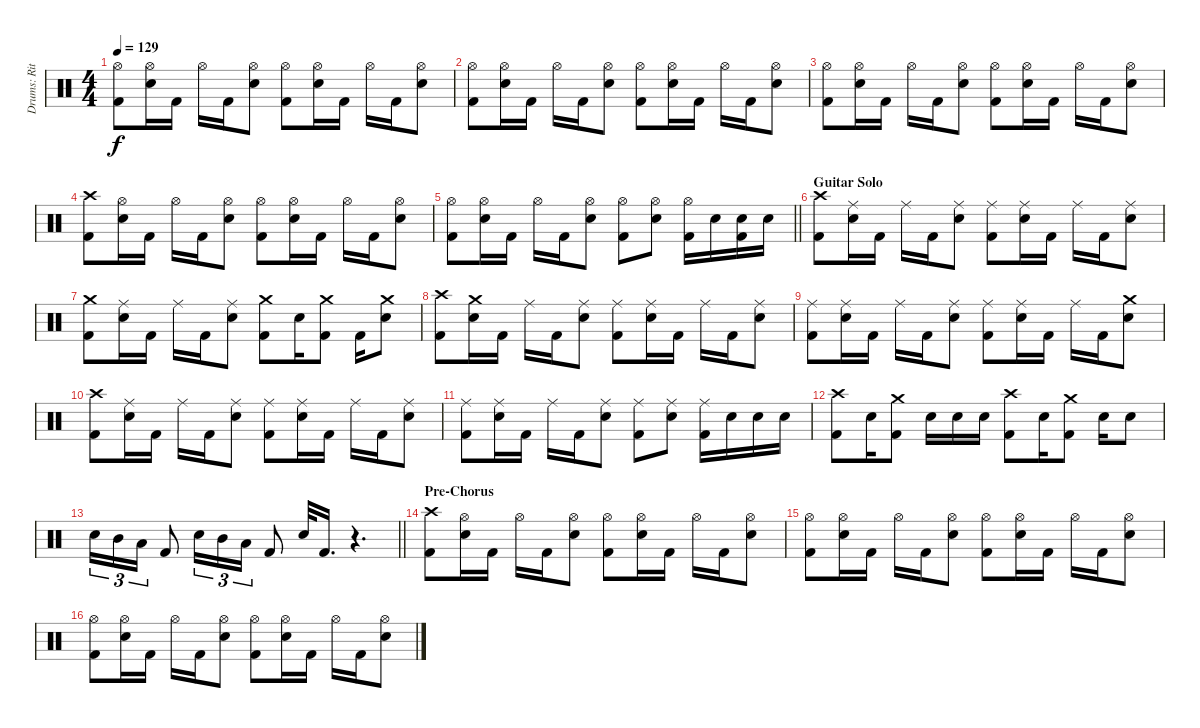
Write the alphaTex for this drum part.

\track ("Drums: Ritsu Tainaka" "Drums: Rit") {instrument percussion}
\staff {score}
\articulation defaults
\ts (4 4)
\tempo 129
\clef neutral
\ks c
("Hi-Hat (open)" "Kick (hit) 2").8{dy f} ("Hi-Hat (open)" "Electric Snare (hit)").16 "Kick (hit) 2".16 "Hi-Hat (open)".16 "Kick (hit) 2".16 ("Hi-Hat (open)" "Electric Snare (hit)").8 ("Hi-Hat (open)" "Kick (hit) 2").8 ("Hi-Hat (open)" "Electric Snare (hit)").16 "Kick (hit) 2".16 "Hi-Hat (open)".16 "Kick (hit) 2".16 ("Hi-Hat (open)" "Electric Snare (hit)").8 |
("Hi-Hat (open)" "Kick (hit) 2").8 ("Hi-Hat (open)" "Electric Snare (hit)").16 "Kick (hit) 2".16 "Hi-Hat (open)".16 "Kick (hit) 2".16 ("Hi-Hat (open)" "Electric Snare (hit)").8 ("Hi-Hat (open)" "Kick (hit) 2").8 ("Hi-Hat (open)" "Electric Snare (hit)").16 "Kick (hit) 2".16 "Hi-Hat (open)".16 "Kick (hit) 2".16 ("Hi-Hat (open)" "Electric Snare (hit)").8 |
("Hi-Hat (open)" "Kick (hit) 2").8 ("Hi-Hat (open)" "Electric Snare (hit)").16 "Kick (hit) 2".16 "Hi-Hat (open)".16 "Kick (hit) 2".16 ("Hi-Hat (open)" "Electric Snare (hit)").8 ("Hi-Hat (open)" "Kick (hit) 2").8 ("Hi-Hat (open)" "Electric Snare (hit)").16 "Kick (hit) 2".16 "Hi-Hat (open)".16 "Kick (hit) 2".16 ("Hi-Hat (open)" "Electric Snare (hit)").8 |
("Crash high (hit)" "Kick (hit) 2").8 ("Hi-Hat (open)" "Electric Snare (hit)").16 "Kick (hit) 2".16 "Hi-Hat (open)".16 "Kick (hit) 2".16 ("Hi-Hat (open)" "Electric Snare (hit)").8 ("Hi-Hat (open)" "Kick (hit) 2").8 ("Hi-Hat (open)" "Electric Snare (hit)").16 "Kick (hit) 2".16 "Hi-Hat (open)".16 "Kick (hit) 2".16 ("Hi-Hat (open)" "Electric Snare (hit)").8 |
\barLineRight lightlight
("Hi-Hat (open)" "Kick (hit) 2").8 ("Hi-Hat (open)" "Electric Snare (hit)").16 "Kick (hit) 2".16 "Hi-Hat (open)".16 "Kick (hit) 2".16 ("Hi-Hat (open)" "Electric Snare (hit)").8 ("Hi-Hat (open)" "Kick (hit) 2").8 ("Hi-Hat (open)" "Electric Snare (hit)").8 ("Hi-Hat (open)" "Kick (hit) 2").16 "Electric Snare (hit)".16 ("Electric Snare (hit)" "Kick (hit) 2").16 "Electric Snare (hit)".16 |
\section ("" "Guitar Solo")
("Crash high (hit)" "Kick (hit) 2").8 ("Ride (middle)" "Electric Snare (hit)").16 "Kick (hit) 2".16 "Ride (middle)".16 "Kick (hit) 2".16 ("Ride (middle)" "Electric Snare (hit)").8 ("Ride (middle)" "Kick (hit) 2").8 ("Ride (middle)" "Electric Snare (hit)").16 "Kick (hit) 2".16 "Ride (middle)".16 "Kick (hit) 2".16 ("Ride (middle)" "Electric Snare (hit)").8 |
("Crash medium (hit)" "Kick (hit) 2").8 ("Ride (middle)" "Electric Snare (hit)").16 "Kick (hit) 2".16 "Ride (middle)".16 "Kick (hit) 2".16 ("Ride (middle)" "Electric Snare (hit)").8 ("Crash medium (hit)" "Kick (hit) 2").8 "Electric Snare (hit)".16 ("Crash medium (hit)" "Kick (hit) 2").8 "Kick (hit) 2".16 ("Crash medium (hit)" "Electric Snare (hit)").8 |
("Crash high (hit)" "Kick (hit) 2").8 ("Crash medium (hit)" "Electric Snare (hit)").16 "Kick (hit) 2".16 "Ride (middle)".16 "Kick (hit) 2".16 ("Ride (middle)" "Electric Snare (hit)").8 ("Ride (middle)" "Kick (hit) 2").8 ("Ride (middle)" "Electric Snare (hit)").16 "Kick (hit) 2".16 "Ride (middle)".16 "Kick (hit) 2".16 ("Ride (middle)" "Electric Snare (hit)").8 |
("Ride (middle)" "Kick (hit) 2").8 ("Ride (middle)" "Electric Snare (hit)").16 "Kick (hit) 2".16 "Ride (middle)".16 "Kick (hit) 2".16 ("Ride (middle)" "Electric Snare (hit)").8 ("Ride (middle)" "Kick (hit) 2").8 ("Ride (middle)" "Electric Snare (hit)").16 "Kick (hit) 2".16 "Ride (middle)".16 "Kick (hit) 2".16 ("Crash medium (hit)" "Electric Snare (hit)").8 |
("Crash high (hit)" "Kick (hit) 2").8 ("Ride (middle)" "Electric Snare (hit)").16 "Kick (hit) 2".16 "Ride (middle)".16 "Kick (hit) 2".16 ("Ride (middle)" "Electric Snare (hit)").8 ("Ride (middle)" "Kick (hit) 2").8 ("Ride (middle)" "Electric Snare (hit)").16 "Kick (hit) 2".16 "Ride (middle)".16 "Kick (hit) 2".16 ("Ride (middle)" "Electric Snare (hit)").8 |
("Ride (middle)" "Kick (hit) 2").8 ("Ride (middle)" "Electric Snare (hit)").16 "Kick (hit) 2".16 "Ride (middle)".16 "Kick (hit) 2".16 ("Ride (middle)" "Electric Snare (hit)").8 ("Ride (middle)" "Kick (hit) 2").8 ("Ride (middle)" "Electric Snare (hit)").8 ("Ride (middle)" "Kick (hit) 2").16 "Electric Snare (hit)".16 "Electric Snare (hit)".16 "Electric Snare (hit)".16 |
("Crash high (hit)" "Kick (hit) 2").8 "Electric Snare (hit)".16 ("Crash medium (hit)" "Kick (hit) 2").8 "Electric Snare (hit)".16 "Electric Snare (hit)".16 "Electric Snare (hit)".16 ("Crash high (hit)" "Kick (hit) 2").8 "Electric Snare (hit)".16 ("Crash medium (hit)" "Kick (hit) 2").8 "Electric Snare (hit)".16 "Electric Snare (hit)".8 |
\barLineRight lightlight "Electric Snare (hit)".16{tu (3 2)} "Mid Tom (hit)".16{tu (3 2)} "Low Floor Tom (hit)".16{tu (3 2)} "Kick (hit) 2".8 "Electric Snare (hit)".16{tu (3 2)} "Mid Tom (hit)".16{tu (3 2)} "Low Floor Tom (hit)".16{tu (3 2)} "Kick (hit) 2".8 "Electric Snare (hit)".32 "Kick (hit) 2".16{d}
r.4{d} |
\section ("" "Pre-Chorus")
("Crash high (hit)" "Kick (hit) 2").8 ("Hi-Hat (open)" "Electric Snare (hit)").16 "Kick (hit) 2".16 "Hi-Hat (open)".16 "Kick (hit) 2".16 ("Hi-Hat (open)" "Electric Snare (hit)").8 ("Hi-Hat (open)" "Kick (hit) 2").8 ("Hi-Hat (open)" "Electric Snare (hit)").16 "Kick (hit) 2".16 "Hi-Hat (open)".16 "Kick (hit) 2".16 ("Hi-Hat (open)" "Electric Snare (hit)").8 |
("Hi-Hat (open)" "Kick (hit) 2").8 ("Hi-Hat (open)" "Electric Snare (hit)").16 "Kick (hit) 2".16 "Hi-Hat (open)".16 "Kick (hit) 2".16 ("Hi-Hat (open)" "Electric Snare (hit)").8 ("Hi-Hat (open)" "Kick (hit) 2").8 ("Hi-Hat (open)" "Electric Snare (hit)").16 "Kick (hit) 2".16 "Hi-Hat (open)".16 "Kick (hit) 2".16 ("Hi-Hat (open)" "Electric Snare (hit)").8 |
("Hi-Hat (open)" "Kick (hit) 2").8 ("Hi-Hat (open)" "Electric Snare (hit)").16 "Kick (hit) 2".16 "Hi-Hat (open)".16 "Kick (hit) 2".16 ("Hi-Hat (open)" "Electric Snare (hit)").8 ("Hi-Hat (open)" "Kick (hit) 2").8 ("Hi-Hat (open)" "Electric Snare (hit)").16 "Kick (hit) 2".16 "Hi-Hat (open)".16 "Kick (hit) 2".16 ("Hi-Hat (open)" "Electric Snare (hit)").8
